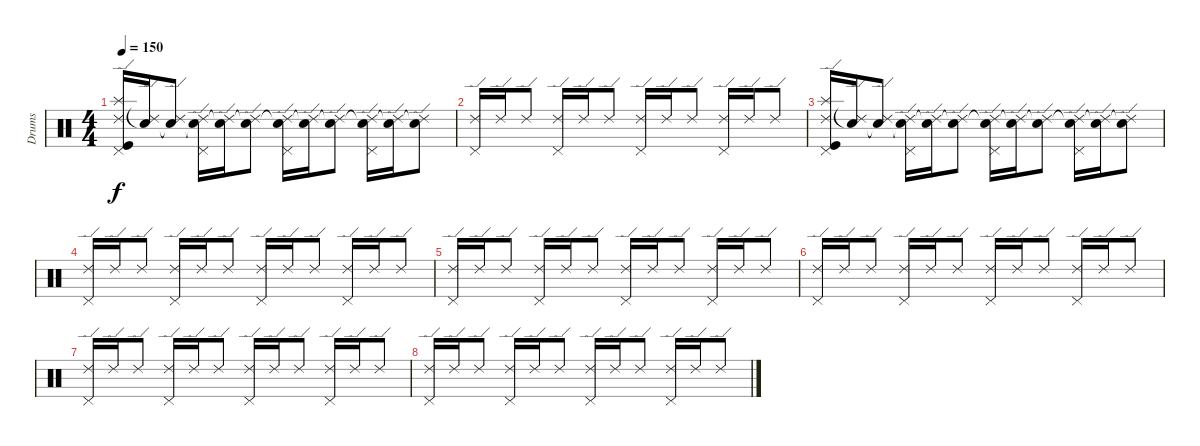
\track ("Drums" "Drums") {instrument percussion}
\staff {score}
\articulation defaults
\ts (4 4)
\tempo 150
\clef neutral
\ks c
("Ride (edge) 2" "Splash (hit)" "Pedal Hi-Hat (hit)" "Kick (hit)").16{dy f} ("Ride (edge) 2" "Snare (hit)"{t}).16 ("Ride (edge) 2" "Snare (hit)"{t}).8 ("Ride (edge) 2" "Snare (hit)"{t} "Pedal Hi-Hat (hit)").16 ("Ride (edge) 2" "Snare (hit)"{t}).16 ("Ride (edge) 2" "Snare (hit)"{t}).8 ("Ride (edge) 2" "Snare (hit)"{t} "Pedal Hi-Hat (hit)").16 ("Ride (edge) 2" "Snare (hit)"{t}).16 ("Ride (edge) 2" "Snare (hit)"{t}).8 ("Ride (edge) 2" "Snare (hit)"{t} "Pedal Hi-Hat (hit)").16 ("Ride (edge) 2" "Snare (hit)"{t}).16 ("Ride (edge) 2" "Snare (hit)"{t}).8 |
("Ride (edge) 2" "Pedal Hi-Hat (hit)").16 "Ride (edge) 2".16 "Ride (edge) 2".8 ("Ride (edge) 2" "Pedal Hi-Hat (hit)").16 "Ride (edge) 2".16 "Ride (edge) 2".8 ("Ride (edge) 2" "Pedal Hi-Hat (hit)").16 "Ride (edge) 2".16 "Ride (edge) 2".8 ("Ride (edge) 2" "Pedal Hi-Hat (hit)").16 "Ride (edge) 2".16 "Ride (edge) 2".8 |
("Ride (edge) 2" "Splash (hit)" "Pedal Hi-Hat (hit)" "Kick (hit)").16 ("Ride (edge) 2" "Snare (hit)"{t}).16 ("Ride (edge) 2" "Snare (hit)"{t}).8 ("Ride (edge) 2" "Snare (hit)"{t} "Pedal Hi-Hat (hit)").16 ("Ride (edge) 2" "Snare (hit)"{t}).16 ("Ride (edge) 2" "Snare (hit)"{t}).8 ("Ride (edge) 2" "Snare (hit)"{t} "Pedal Hi-Hat (hit)").16 ("Ride (edge) 2" "Snare (hit)"{t}).16 ("Ride (edge) 2" "Snare (hit)"{t}).8 ("Ride (edge) 2" "Snare (hit)"{t} "Pedal Hi-Hat (hit)").16 ("Ride (edge) 2" "Snare (hit)"{t}).16 ("Ride (edge) 2" "Snare (hit)"{t}).8 |
("Ride (edge) 2" "Pedal Hi-Hat (hit)").16 "Ride (edge) 2".16 "Ride (edge) 2".8 ("Ride (edge) 2" "Pedal Hi-Hat (hit)").16 "Ride (edge) 2".16 "Ride (edge) 2".8 ("Ride (edge) 2" "Pedal Hi-Hat (hit)").16 "Ride (edge) 2".16 "Ride (edge) 2".8 ("Ride (edge) 2" "Pedal Hi-Hat (hit)").16 "Ride (edge) 2".16 "Ride (edge) 2".8 |
("Ride (edge) 2" "Pedal Hi-Hat (hit)").16 "Ride (edge) 2".16 "Ride (edge) 2".8 ("Ride (edge) 2" "Pedal Hi-Hat (hit)").16 "Ride (edge) 2".16 "Ride (edge) 2".8 ("Ride (edge) 2" "Pedal Hi-Hat (hit)").16 "Ride (edge) 2".16 "Ride (edge) 2".8 ("Ride (edge) 2" "Pedal Hi-Hat (hit)").16 "Ride (edge) 2".16 "Ride (edge) 2".8 |
("Ride (edge) 2" "Pedal Hi-Hat (hit)").16 "Ride (edge) 2".16 "Ride (edge) 2".8 ("Ride (edge) 2" "Pedal Hi-Hat (hit)").16 "Ride (edge) 2".16 "Ride (edge) 2".8 ("Ride (edge) 2" "Pedal Hi-Hat (hit)").16 "Ride (edge) 2".16 "Ride (edge) 2".8 ("Ride (edge) 2" "Pedal Hi-Hat (hit)").16 "Ride (edge) 2".16 "Ride (edge) 2".8 |
("Ride (edge) 2" "Pedal Hi-Hat (hit)").16 "Ride (edge) 2".16 "Ride (edge) 2".8 ("Ride (edge) 2" "Pedal Hi-Hat (hit)").16 "Ride (edge) 2".16 "Ride (edge) 2".8 ("Ride (edge) 2" "Pedal Hi-Hat (hit)").16 "Ride (edge) 2".16 "Ride (edge) 2".8 ("Ride (edge) 2" "Pedal Hi-Hat (hit)").16 "Ride (edge) 2".16 "Ride (edge) 2".8 |
("Ride (edge) 2" "Pedal Hi-Hat (hit)").16 "Ride (edge) 2".16 "Ride (edge) 2".8 ("Ride (edge) 2" "Pedal Hi-Hat (hit)").16 "Ride (edge) 2".16 "Ride (edge) 2".8 ("Ride (edge) 2" "Pedal Hi-Hat (hit)").16 "Ride (edge) 2".16 "Ride (edge) 2".8 ("Ride (edge) 2" "Pedal Hi-Hat (hit)").16 "Ride (edge) 2".16 "Ride (edge) 2".8
